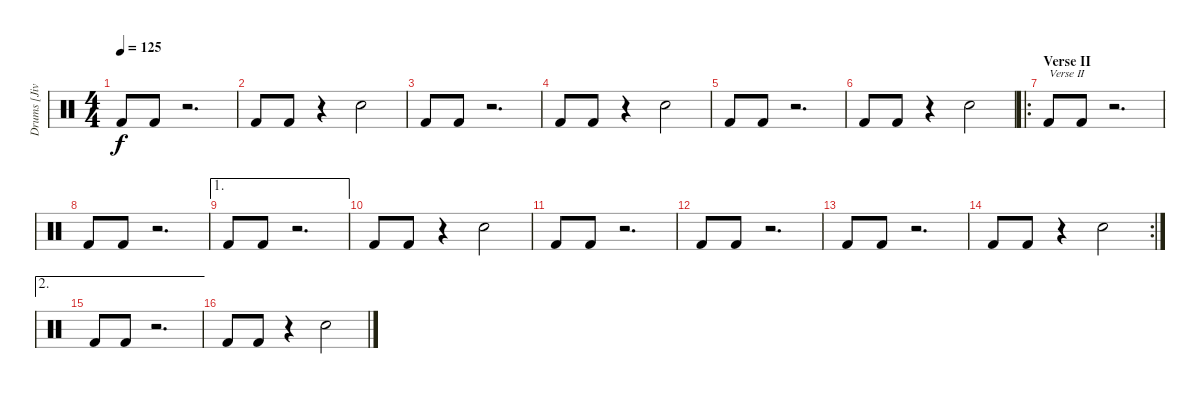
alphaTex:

\track ("Drums [Jivarp]" "Drums [Jiv") {instrument percussion}
\staff {score}
\articulation defaults
\ts (4 4)
\tempo 125
\clef neutral
\ks c "Kick (hit) 2".8{dy f} "Kick (hit) 2".8
r.2{d} |
"Kick (hit) 2".8 "Kick (hit) 2".8 r.4 "Electric Snare (hit)".2 |
"Kick (hit) 2".8 "Kick (hit) 2".8 r.2{d} |
"Kick (hit) 2".8 "Kick (hit) 2".8 r.4 "Electric Snare (hit)".2 |
"Kick (hit) 2".8 "Kick (hit) 2".8 r.2{d} |
"Kick (hit) 2".8 "Kick (hit) 2".8 r.4 "Electric Snare (hit)".2 |
\ro
\section ("" "Verse II")
"Kick (hit) 2".8{txt "Verse II"} "Kick (hit) 2".8 r.2{d} |
"Kick (hit) 2".8 "Kick (hit) 2".8 r.2{d} |
\ae 1 "Kick (hit) 2".8 "Kick (hit) 2".8
r.2{d} |
"Kick (hit) 2".8 "Kick (hit) 2".8 r.4 "Electric Snare (hit)".2 |
"Kick (hit) 2".8 "Kick (hit) 2".8 r.2{d} |
"Kick (hit) 2".8 "Kick (hit) 2".8 r.2{d} |
"Kick (hit) 2".8 "Kick (hit) 2".8 r.2{d} |
\rc 2 "Kick (hit) 2".8 "Kick (hit) 2".8
r.4 "Electric Snare (hit)".2 |
\ae 2 "Kick (hit) 2".8 "Kick (hit) 2".8
r.2{d} |
"Kick (hit) 2".8 "Kick (hit) 2".8 r.4 "Electric Snare (hit)".2
